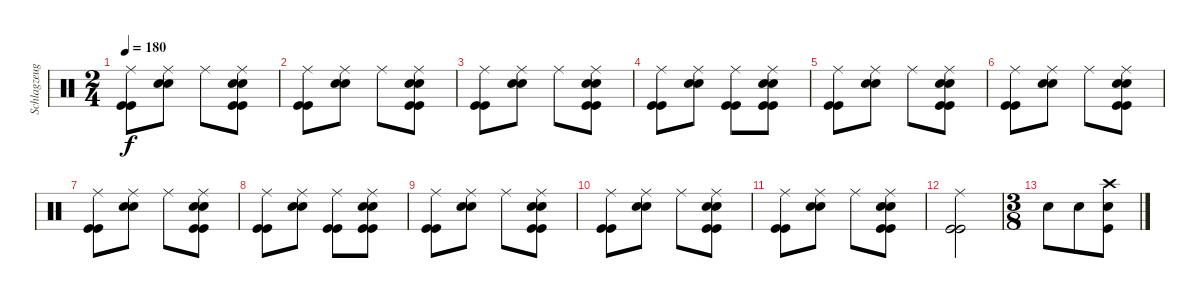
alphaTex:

\track ("Schlagzeug" "Schlagzeug") {instrument percussion}
\staff {score}
\articulation defaults
\ts (2 4)
\tempo 180
\clef neutral
\ks c
("Ride (middle)" "Kick (hit)" "Kick (hit)").8{dy f} ("Ride (middle)" "Electric Snare (hit)" "Electric Snare (hit)").8 "Ride (middle)".8 ("Ride (middle)" "Electric Snare (hit)" "Electric Snare (hit)" "Kick (hit)" "Kick (hit)").8 |
("Ride (middle)" "Kick (hit)" "Kick (hit)").8 ("Ride (middle)" "Electric Snare (hit)" "Electric Snare (hit)").8 "Ride (middle)".8 ("Ride (middle)" "Electric Snare (hit)" "Electric Snare (hit)" "Kick (hit)" "Kick (hit)").8 |
("Ride (middle)" "Kick (hit)" "Kick (hit)").8 ("Ride (middle)" "Electric Snare (hit)" "Electric Snare (hit)").8 "Ride (middle)".8 ("Ride (middle)" "Electric Snare (hit)" "Electric Snare (hit)" "Kick (hit)" "Kick (hit)").8 |
("Ride (middle)" "Kick (hit)" "Kick (hit)").8 ("Ride (middle)" "Electric Snare (hit)" "Electric Snare (hit)").8 ("Ride (middle)" "Kick (hit)" "Kick (hit)").8 ("Ride (middle)" "Electric Snare (hit)" "Electric Snare (hit)" "Kick (hit)" "Kick (hit)").8 |
("Ride (middle)" "Kick (hit)" "Kick (hit)").8 ("Ride (middle)" "Electric Snare (hit)" "Electric Snare (hit)").8 "Ride (middle)".8 ("Ride (middle)" "Electric Snare (hit)" "Electric Snare (hit)" "Kick (hit)" "Kick (hit)").8 |
("Ride (middle)" "Kick (hit)" "Kick (hit)").8 ("Ride (middle)" "Electric Snare (hit)" "Electric Snare (hit)").8 "Ride (middle)".8 ("Ride (middle)" "Electric Snare (hit)" "Electric Snare (hit)" "Kick (hit)" "Kick (hit)").8 |
("Ride (middle)" "Kick (hit)" "Kick (hit)").8 ("Ride (middle)" "Electric Snare (hit)" "Electric Snare (hit)").8 "Ride (middle)".8 ("Ride (middle)" "Electric Snare (hit)" "Electric Snare (hit)" "Kick (hit)" "Kick (hit)").8 |
("Ride (middle)" "Kick (hit)" "Kick (hit)").8 ("Ride (middle)" "Electric Snare (hit)" "Electric Snare (hit)").8 ("Ride (middle)" "Kick (hit)" "Kick (hit)").8 ("Ride (middle)" "Electric Snare (hit)" "Electric Snare (hit)" "Kick (hit)" "Kick (hit)").8 |
("Ride (middle)" "Kick (hit)" "Kick (hit)").8 ("Ride (middle)" "Electric Snare (hit)" "Electric Snare (hit)").8 "Ride (middle)".8 ("Ride (middle)" "Electric Snare (hit)" "Electric Snare (hit)" "Kick (hit)" "Kick (hit)").8 |
("Ride (middle)" "Kick (hit)" "Kick (hit)").8 ("Ride (middle)" "Electric Snare (hit)" "Electric Snare (hit)").8 "Ride (middle)".8 ("Ride (middle)" "Electric Snare (hit)" "Electric Snare (hit)" "Kick (hit)" "Kick (hit)").8 |
("Ride (middle)" "Kick (hit)" "Kick (hit)").8 ("Ride (middle)" "Electric Snare (hit)" "Electric Snare (hit)").8 "Ride (middle)".8 ("Ride (middle)" "Electric Snare (hit)" "Electric Snare (hit)" "Kick (hit)" "Kick (hit)").8 |
("Ride (middle)" "Kick (hit)" "Kick (hit)").2 |
\ts (3 8)
"Electric Snare (hit)".8 "Electric Snare (hit)".8 ("Crash high (hit)" "Electric Snare (hit)" "Kick (hit)").8
